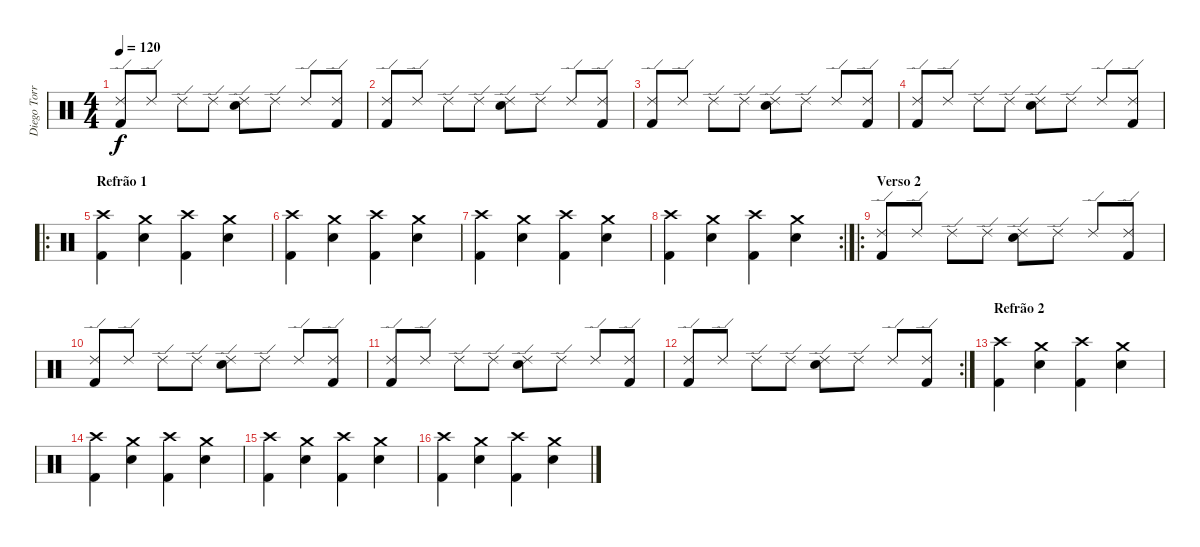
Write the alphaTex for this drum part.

\track ("Diego Torres [Bateria]" "Diego Torr") {instrument percussion}
\staff {score}
\articulation defaults
\ts (4 4)
\tempo 120
\clef neutral
\ks c
("Ride (edge) 2" "Kick (hit) 2").8{dy f} "Ride (edge) 2".8 "Ride (edge) 2".8 "Ride (edge) 2".8 ("Ride (edge) 2" "Electric Snare (hit)").8 "Ride (edge) 2".8 "Ride (edge) 2".8 ("Ride (edge) 2" "Kick (hit) 2").8 |
("Ride (edge) 2" "Kick (hit) 2").8 "Ride (edge) 2".8 "Ride (edge) 2".8 "Ride (edge) 2".8 ("Ride (edge) 2" "Electric Snare (hit)").8 "Ride (edge) 2".8 "Ride (edge) 2".8 ("Ride (edge) 2" "Kick (hit) 2").8 |
("Ride (edge) 2" "Kick (hit) 2").8 "Ride (edge) 2".8 "Ride (edge) 2".8 "Ride (edge) 2".8 ("Ride (edge) 2" "Electric Snare (hit)").8 "Ride (edge) 2".8 "Ride (edge) 2".8 ("Ride (edge) 2" "Kick (hit) 2").8 |
("Ride (edge) 2" "Kick (hit) 2").8 "Ride (edge) 2".8 "Ride (edge) 2".8 "Ride (edge) 2".8 ("Ride (edge) 2" "Electric Snare (hit)").8 "Ride (edge) 2".8 "Ride (edge) 2".8 ("Ride (edge) 2" "Kick (hit) 2").8 |
\ro
\section ("" "Refrão 1")
("Crash high (hit)" "Kick (hit) 2").4 ("Crash medium (hit)" "Electric Snare (hit)").4 ("Crash high (hit)" "Kick (hit) 2").4 ("Crash medium (hit)" "Electric Snare (hit)").4 |
("Crash high (hit)" "Kick (hit) 2").4 ("Crash medium (hit)" "Electric Snare (hit)").4 ("Crash high (hit)" "Kick (hit) 2").4 ("Crash medium (hit)" "Electric Snare (hit)").4 |
("Crash high (hit)" "Kick (hit) 2").4 ("Crash medium (hit)" "Electric Snare (hit)").4 ("Crash high (hit)" "Kick (hit) 2").4 ("Crash medium (hit)" "Electric Snare (hit)").4 |
\rc 2
("Crash high (hit)" "Kick (hit) 2").4 ("Crash medium (hit)" "Electric Snare (hit)").4 ("Crash high (hit)" "Kick (hit) 2").4 ("Crash medium (hit)" "Electric Snare (hit)").4 |
\ro
\section ("" "Verso 2")
("Ride (edge) 2" "Kick (hit) 2").8 "Ride (edge) 2".8 "Ride (edge) 2".8 "Ride (edge) 2".8 ("Ride (edge) 2" "Electric Snare (hit)").8 "Ride (edge) 2".8 "Ride (edge) 2".8 ("Ride (edge) 2" "Kick (hit) 2").8 |
("Ride (edge) 2" "Kick (hit) 2").8 "Ride (edge) 2".8 "Ride (edge) 2".8 "Ride (edge) 2".8 ("Ride (edge) 2" "Electric Snare (hit)").8 "Ride (edge) 2".8 "Ride (edge) 2".8 ("Ride (edge) 2" "Kick (hit) 2").8 |
("Ride (edge) 2" "Kick (hit) 2").8 "Ride (edge) 2".8 "Ride (edge) 2".8 "Ride (edge) 2".8 ("Ride (edge) 2" "Electric Snare (hit)").8 "Ride (edge) 2".8 "Ride (edge) 2".8 ("Ride (edge) 2" "Kick (hit) 2").8 |
\rc 2
("Ride (edge) 2" "Kick (hit) 2").8 "Ride (edge) 2".8 "Ride (edge) 2".8 "Ride (edge) 2".8 ("Ride (edge) 2" "Electric Snare (hit)").8 "Ride (edge) 2".8 "Ride (edge) 2".8 ("Ride (edge) 2" "Kick (hit) 2").8 |
\section ("" "Refrão 2")
("Crash high (hit)" "Kick (hit) 2").4 ("Crash medium (hit)" "Electric Snare (hit)").4 ("Crash high (hit)" "Kick (hit) 2").4 ("Crash medium (hit)" "Electric Snare (hit)").4 |
("Crash high (hit)" "Kick (hit) 2").4 ("Crash medium (hit)" "Electric Snare (hit)").4 ("Crash high (hit)" "Kick (hit) 2").4 ("Crash medium (hit)" "Electric Snare (hit)").4 |
("Crash high (hit)" "Kick (hit) 2").4 ("Crash medium (hit)" "Electric Snare (hit)").4 ("Crash high (hit)" "Kick (hit) 2").4 ("Crash medium (hit)" "Electric Snare (hit)").4 |
("Crash high (hit)" "Kick (hit) 2").4 ("Crash medium (hit)" "Electric Snare (hit)").4 ("Crash high (hit)" "Kick (hit) 2").4 ("Crash medium (hit)" "Electric Snare (hit)").4
